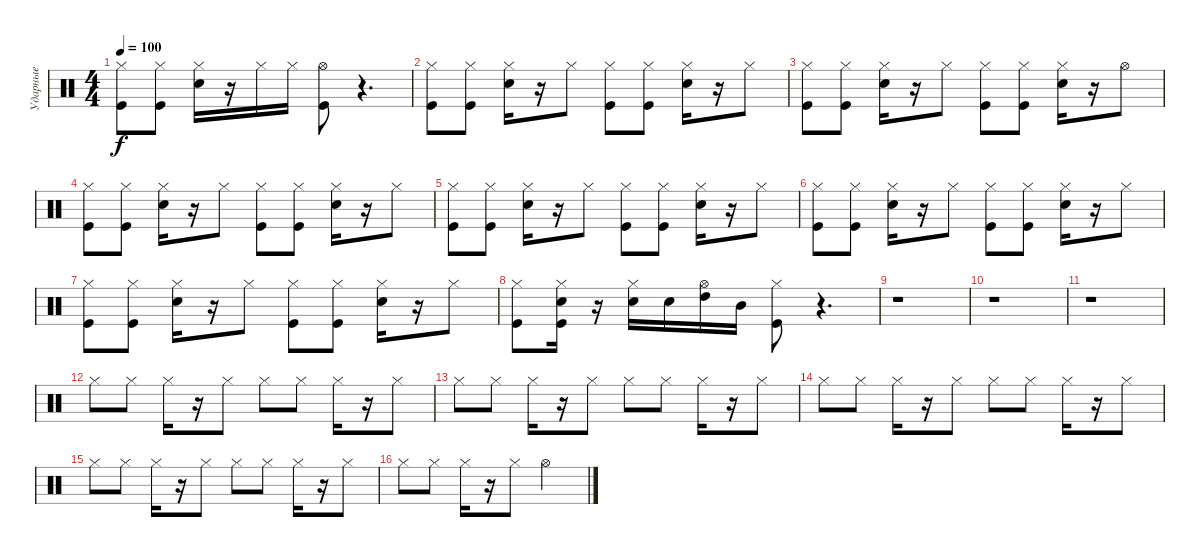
\track ("Ударные" "Ударные") {instrument percussion}
\staff {score}
\articulation defaults
\ts (4 4)
\tempo 100
\clef neutral
\ks c
("Hi-Hat (closed)" "Kick (hit)").8{dy f} ("Kick (hit)" "Hi-Hat (closed)").8 ("Hi-Hat (closed)" "Snare (hit) 2").16 r.16 "Hi-Hat (closed)".16 "Hi-Hat (closed)".16 ("Hi-Hat (open)" "Kick (hit)").8 r.4{d} |
("Hi-Hat (closed)" "Kick (hit)").8 ("Kick (hit)" "Hi-Hat (closed)").8 ("Hi-Hat (closed)" "Snare (hit) 2").16 r.16 "Hi-Hat (closed)".8 ("Hi-Hat (closed)" "Kick (hit)").8 ("Kick (hit)" "Hi-Hat (closed)").8 ("Hi-Hat (closed)" "Snare (hit) 2").16 r.16 "Hi-Hat (closed)".8 |
("Hi-Hat (closed)" "Kick (hit)").8 ("Kick (hit)" "Hi-Hat (closed)").8 ("Hi-Hat (closed)" "Snare (hit) 2").16 r.16 "Hi-Hat (closed)".8 ("Hi-Hat (closed)" "Kick (hit)").8 ("Kick (hit)" "Hi-Hat (closed)").8 ("Hi-Hat (closed)" "Snare (hit) 2").16 r.16 "Hi-Hat (open)".8 |
("Hi-Hat (closed)" "Kick (hit)").8 ("Kick (hit)" "Hi-Hat (closed)").8 ("Hi-Hat (closed)" "Snare (hit) 2").16 r.16 "Hi-Hat (closed)".8 ("Hi-Hat (closed)" "Kick (hit)").8 ("Kick (hit)" "Hi-Hat (closed)").8 ("Hi-Hat (closed)" "Snare (hit) 2").16 r.16 "Hi-Hat (closed)".8 |
("Hi-Hat (closed)" "Kick (hit)").8 ("Kick (hit)" "Hi-Hat (closed)").8 ("Hi-Hat (closed)" "Snare (hit) 2").16 r.16 "Hi-Hat (closed)".8 ("Hi-Hat (closed)" "Kick (hit)").8 ("Kick (hit)" "Hi-Hat (closed)").8 ("Hi-Hat (closed)" "Snare (hit) 2").16 r.16 "Hi-Hat (closed)".8 |
("Hi-Hat (closed)" "Kick (hit)").8 ("Kick (hit)" "Hi-Hat (closed)").8 ("Hi-Hat (closed)" "Snare (hit) 2").16 r.16 "Hi-Hat (closed)".8 ("Hi-Hat (closed)" "Kick (hit)").8 ("Kick (hit)" "Hi-Hat (closed)").8 ("Hi-Hat (closed)" "Snare (hit) 2").16 r.16 "Hi-Hat (closed)".8 |
("Hi-Hat (closed)" "Kick (hit)").8 ("Kick (hit)" "Hi-Hat (closed)").8 ("Hi-Hat (closed)" "Snare (hit) 2").16 r.16 "Hi-Hat (closed)".8 ("Hi-Hat (closed)" "Kick (hit)").8 ("Kick (hit)" "Hi-Hat (closed)").8 ("Hi-Hat (closed)" "Snare (hit) 2").16 r.16 "Hi-Hat (closed)".8 |
("Hi-Hat (closed)" "Kick (hit)").8 ("Hi-Hat (closed)" "Snare (hit) 2" "Kick (hit)").16 r.16 ("Hi-Hat (closed)" "Snare (hit) 2").16 "Snare (hit) 2".16 ("High Tom (hit)" "Hi-Hat (open)").16 "Mid Tom (hit)".16 ("Hi-Hat (closed)" "Kick (hit)").8 r.4{d} |
r.1 |
r.1 |
r.1 |
"Hi-Hat (closed)".8 "Hi-Hat (closed)".8 "Hi-Hat (closed)".16 r.16 "Hi-Hat (closed)".8 "Hi-Hat (closed)".8 "Hi-Hat (closed)".8 "Hi-Hat (closed)".16 r.16 "Hi-Hat (closed)".8 |
"Hi-Hat (closed)".8 "Hi-Hat (closed)".8 "Hi-Hat (closed)".16 r.16 "Hi-Hat (closed)".8 "Hi-Hat (closed)".8 "Hi-Hat (closed)".8 "Hi-Hat (closed)".16 r.16 "Hi-Hat (closed)".8 |
"Hi-Hat (closed)".8 "Hi-Hat (closed)".8 "Hi-Hat (closed)".16 r.16 "Hi-Hat (closed)".8 "Hi-Hat (closed)".8 "Hi-Hat (closed)".8 "Hi-Hat (closed)".16 r.16 "Hi-Hat (closed)".8 |
"Hi-Hat (closed)".8 "Hi-Hat (closed)".8 "Hi-Hat (closed)".16 r.16 "Hi-Hat (closed)".8 "Hi-Hat (closed)".8 "Hi-Hat (closed)".8 "Hi-Hat (closed)".16 r.16 "Hi-Hat (closed)".8 |
"Hi-Hat (closed)".8 "Hi-Hat (closed)".8 "Hi-Hat (closed)".16 r.16 "Hi-Hat (closed)".8 "Hi-Hat (open)".2
